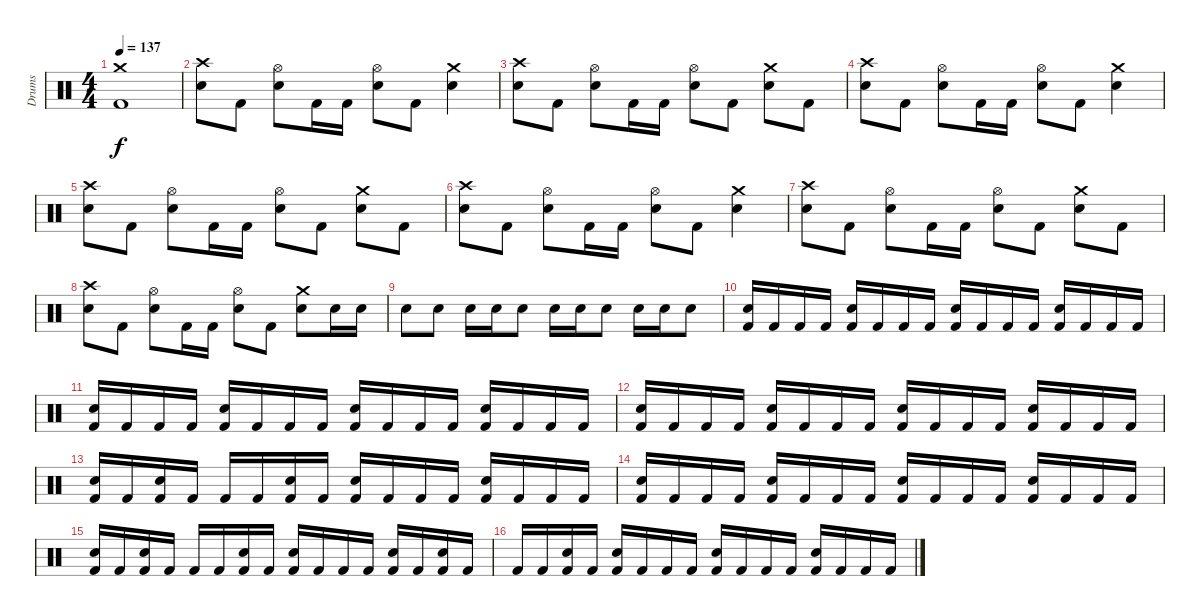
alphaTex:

\track ("Drums" "Drums") {instrument percussion}
\staff {score}
\articulation defaults
\ts (4 4)
\tempo 137
\clef neutral
\ks c
("Crash medium (hit)" "Kick (hit) 2").1{dy f} |
("Crash high (hit)" "Snare (hit) 2").8 "Kick (hit) 2".8 ("Hi-Hat (open)" "Snare (hit) 2").8 "Kick (hit) 2".16 "Kick (hit) 2".16 ("Hi-Hat (open)" "Snare (hit) 2").8 "Kick (hit) 2".8 ("Crash medium (hit)" "Snare (hit) 2").4 |
("Crash high (hit)" "Snare (hit) 2").8 "Kick (hit) 2".8 ("Hi-Hat (open)" "Snare (hit) 2").8 "Kick (hit) 2".16 "Kick (hit) 2".16 ("Hi-Hat (open)" "Snare (hit) 2").8 "Kick (hit) 2".8 ("Crash medium (hit)" "Snare (hit) 2").8 "Kick (hit) 2".8 |
("Crash high (hit)" "Snare (hit) 2").8 "Kick (hit) 2".8 ("Hi-Hat (open)" "Snare (hit) 2").8 "Kick (hit) 2".16 "Kick (hit) 2".16 ("Hi-Hat (open)" "Snare (hit) 2").8 "Kick (hit) 2".8 ("Crash medium (hit)" "Snare (hit) 2").4 |
("Crash high (hit)" "Snare (hit) 2").8 "Kick (hit) 2".8 ("Hi-Hat (open)" "Snare (hit) 2").8 "Kick (hit) 2".16 "Kick (hit) 2".16 ("Hi-Hat (open)" "Snare (hit) 2").8 "Kick (hit) 2".8 ("Crash medium (hit)" "Snare (hit) 2").8 "Kick (hit) 2".8 |
("Crash high (hit)" "Snare (hit) 2").8 "Kick (hit) 2".8 ("Hi-Hat (open)" "Snare (hit) 2").8 "Kick (hit) 2".16 "Kick (hit) 2".16 ("Hi-Hat (open)" "Snare (hit) 2").8 "Kick (hit) 2".8 ("Crash medium (hit)" "Snare (hit) 2").4 |
("Crash high (hit)" "Snare (hit) 2").8 "Kick (hit) 2".8 ("Hi-Hat (open)" "Snare (hit) 2").8 "Kick (hit) 2".16 "Kick (hit) 2".16 ("Hi-Hat (open)" "Snare (hit) 2").8 "Kick (hit) 2".8 ("Crash medium (hit)" "Snare (hit) 2").8 "Kick (hit) 2".8 |
("Crash high (hit)" "Snare (hit) 2").8 "Kick (hit) 2".8 ("Hi-Hat (open)" "Snare (hit) 2").8 "Kick (hit) 2".16 "Kick (hit) 2".16 ("Hi-Hat (open)" "Snare (hit) 2").8 "Kick (hit) 2".8 ("Crash medium (hit)" "Snare (hit) 2").8 "Snare (hit) 2".16 "Snare (hit) 2".16 |
"Snare (hit) 2".8 "Snare (hit) 2".8 "Snare (hit) 2".16 "Snare (hit) 2".16 "Snare (hit) 2".8 "Snare (hit) 2".16 "Snare (hit) 2".16 "Snare (hit) 2".8 "Snare (hit) 2".16 "Snare (hit) 2".16 "Snare (hit) 2".8 |
("Snare (hit) 2" "Kick (hit) 2").16 "Kick (hit) 2".16 "Kick (hit) 2".16 "Kick (hit) 2".16 ("Snare (hit) 2" "Kick (hit) 2").16 "Kick (hit) 2".16 "Kick (hit) 2".16 "Kick (hit) 2".16 ("Snare (hit) 2" "Kick (hit) 2").16 "Kick (hit) 2".16 "Kick (hit) 2".16 "Kick (hit) 2".16 ("Snare (hit) 2" "Kick (hit) 2").16 "Kick (hit) 2".16 "Kick (hit) 2".16 "Kick (hit) 2".16 |
("Snare (hit) 2" "Kick (hit) 2").16 "Kick (hit) 2".16 "Kick (hit) 2".16 "Kick (hit) 2".16 ("Snare (hit) 2" "Kick (hit) 2").16 "Kick (hit) 2".16 "Kick (hit) 2".16 "Kick (hit) 2".16 ("Snare (hit) 2" "Kick (hit) 2").16 "Kick (hit) 2".16 "Kick (hit) 2".16 "Kick (hit) 2".16 ("Snare (hit) 2" "Kick (hit) 2").16 "Kick (hit) 2".16 "Kick (hit) 2".16 "Kick (hit) 2".16 |
("Snare (hit) 2" "Kick (hit) 2").16 "Kick (hit) 2".16 "Kick (hit) 2".16 "Kick (hit) 2".16 ("Snare (hit) 2" "Kick (hit) 2").16 "Kick (hit) 2".16 "Kick (hit) 2".16 "Kick (hit) 2".16 ("Snare (hit) 2" "Kick (hit) 2").16 "Kick (hit) 2".16 "Kick (hit) 2".16 "Kick (hit) 2".16 ("Snare (hit) 2" "Kick (hit) 2").16 "Kick (hit) 2".16 "Kick (hit) 2".16 "Kick (hit) 2".16 |
("Snare (hit) 2" "Kick (hit) 2").16 "Kick (hit) 2".16 ("Snare (hit) 2" "Kick (hit) 2").16 "Kick (hit) 2".16 "Kick (hit) 2".16 "Kick (hit) 2".16 ("Snare (hit) 2" "Kick (hit) 2").16 "Kick (hit) 2".16 ("Snare (hit) 2" "Kick (hit) 2").16 "Kick (hit) 2".16 "Kick (hit) 2".16 "Kick (hit) 2".16 ("Snare (hit) 2" "Kick (hit) 2").16 "Kick (hit) 2".16 "Kick (hit) 2".16 "Kick (hit) 2".16 |
("Snare (hit) 2" "Kick (hit) 2").16 "Kick (hit) 2".16 "Kick (hit) 2".16 "Kick (hit) 2".16 ("Snare (hit) 2" "Kick (hit) 2").16 "Kick (hit) 2".16 "Kick (hit) 2".16 "Kick (hit) 2".16 ("Snare (hit) 2" "Kick (hit) 2").16 "Kick (hit) 2".16 "Kick (hit) 2".16 "Kick (hit) 2".16 ("Snare (hit) 2" "Kick (hit) 2").16 "Kick (hit) 2".16 "Kick (hit) 2".16 "Kick (hit) 2".16 |
("Snare (hit) 2" "Kick (hit) 2").16 "Kick (hit) 2".16 ("Snare (hit) 2" "Kick (hit) 2").16 "Kick (hit) 2".16 "Kick (hit) 2".16 "Kick (hit) 2".16 ("Snare (hit) 2" "Kick (hit) 2").16 "Kick (hit) 2".16 ("Snare (hit) 2" "Kick (hit) 2").16 "Kick (hit) 2".16 "Kick (hit) 2".16 "Kick (hit) 2".16 ("Snare (hit) 2" "Kick (hit) 2").16 "Kick (hit) 2".16 ("Snare (hit) 2" "Kick (hit) 2").16 "Kick (hit) 2".16 |
"Kick (hit) 2".16 "Kick (hit) 2".16 ("Snare (hit) 2" "Kick (hit) 2").16 "Kick (hit) 2".16 ("Snare (hit) 2" "Kick (hit) 2").16 "Kick (hit) 2".16 "Kick (hit) 2".16 "Kick (hit) 2".16 ("Snare (hit) 2" "Kick (hit) 2").16 "Kick (hit) 2".16 "Kick (hit) 2".16 "Kick (hit) 2".16 ("Snare (hit) 2" "Kick (hit) 2").16 "Kick (hit) 2".16 "Kick (hit) 2".16 "Kick (hit) 2".16
